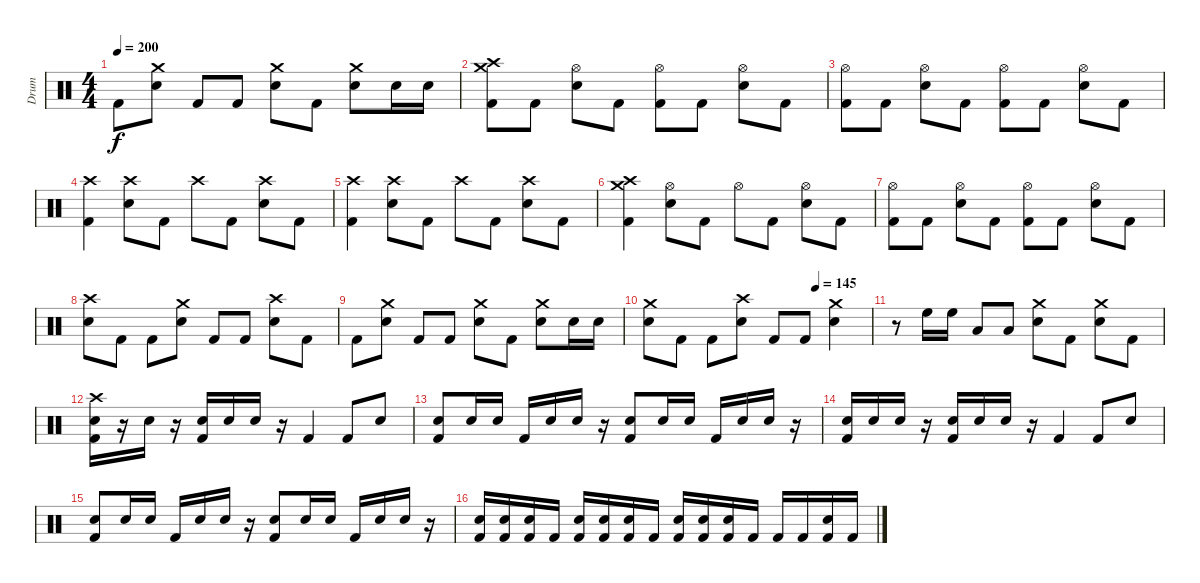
\track ("Drum" "Drum") {instrument percussion}
\staff
\articulation defaults
\ts (4 4)
\tempo 200
\clef neutral
\ks c "Kick (hit) 2".8{dy f}
("Crash medium (hit)" "Electric Snare (hit)").8 "Kick (hit) 2".8 "Kick (hit) 2".8 ("Crash medium (hit)" "Electric Snare (hit)").8 "Kick (hit) 2".8 ("Crash medium (hit)" "Electric Snare (hit)").8 "Electric Snare (hit)".16 "Electric Snare (hit)".16 |
("Crash high (hit)" "Crash medium (hit)" "Kick (hit) 2").8 "Kick (hit) 2".8 ("Hi-Hat (open)" "Electric Snare (hit)").8 "Kick (hit) 2".8 ("Hi-Hat (open)" "Kick (hit) 2").8 "Kick (hit) 2".8 ("Hi-Hat (open)" "Electric Snare (hit)").8 "Kick (hit) 2".8 |
("Hi-Hat (open)" "Kick (hit) 2").8 "Kick (hit) 2".8 ("Hi-Hat (open)" "Electric Snare (hit)").8 "Kick (hit) 2".8 ("Hi-Hat (open)" "Kick (hit) 2").8 "Kick (hit) 2".8 ("Hi-Hat (open)" "Electric Snare (hit)").8 "Kick (hit) 2".8 |
("Crash high (hit)" "Kick (hit) 2").4 ("Crash high (hit)" "Electric Snare (hit)").8 "Kick (hit) 2".8 "Crash high (hit)".8 "Kick (hit) 2".8 ("Crash high (hit)" "Electric Snare (hit)").8 "Kick (hit) 2".8 |
("Crash high (hit)" "Kick (hit) 2").4 ("Crash high (hit)" "Electric Snare (hit)").8 "Kick (hit) 2".8 "Crash high (hit)".8 "Kick (hit) 2".8 ("Crash high (hit)" "Electric Snare (hit)").8 "Kick (hit) 2".8 |
("Crash high (hit)" "Crash medium (hit)" "Kick (hit) 2").4 ("Hi-Hat (open)" "Electric Snare (hit)").8 "Kick (hit) 2".8 "Hi-Hat (open)".8 "Kick (hit) 2".8 ("Hi-Hat (open)" "Electric Snare (hit)").8 "Kick (hit) 2".8 |
("Hi-Hat (open)" "Kick (hit) 2").8 "Kick (hit) 2".8 ("Hi-Hat (open)" "Electric Snare (hit)").8 "Kick (hit) 2".8 ("Hi-Hat (open)" "Kick (hit) 2").8 "Kick (hit) 2".8 ("Hi-Hat (open)" "Electric Snare (hit)").8 "Kick (hit) 2".8 |
("Crash high (hit)" "Electric Snare (hit)").8 "Kick (hit) 2".8 "Kick (hit) 2".8 ("Crash medium (hit)" "Electric Snare (hit)").8 "Kick (hit) 2".8 "Kick (hit) 2".8 ("Crash high (hit)" "Electric Snare (hit)").8 "Kick (hit) 2".8 |
"Kick (hit) 2".8 ("Crash medium (hit)" "Electric Snare (hit)").8 "Kick (hit) 2".8 "Kick (hit) 2".8 ("Crash medium (hit)" "Electric Snare (hit)").8 "Kick (hit) 2".8 ("Crash medium (hit)" "Electric Snare (hit)").8 "Electric Snare (hit)".16 "Electric Snare (hit)".16 |
\tempo (145 0.75)
("Crash medium (hit)" "Electric Snare (hit)").8 "Kick (hit) 2".8 "Kick (hit) 2".8 ("Crash high (hit)" "Electric Snare (hit)").8 "Kick (hit) 2".8 "Kick (hit) 2".8 ("Crash medium (hit)" "Electric Snare (hit)").4 |
r.8 "High Floor Tom (hit)".16 "High Floor Tom (hit)".16 "Low Tom (hit)".8 "Low Tom (hit)".8 ("Crash medium (hit)" "Electric Snare (hit)").8 "Kick (hit) 2".8 ("Crash medium (hit)" "Electric Snare (hit)").8 "Kick (hit) 2".8 |
("Crash high (hit)" "Electric Snare (hit)" "Kick (hit) 2").16 r.16 "Electric Snare (hit)".16 r.16 ("Electric Snare (hit)" "Kick (hit) 2").16 "Electric Snare (hit)".16 "Electric Snare (hit)".16 r.16 "Kick (hit) 2".4 "Kick (hit) 2".8 "Electric Snare (hit)".8 |
("Electric Snare (hit)" "Kick (hit) 2").8 "Electric Snare (hit)".16 "Electric Snare (hit)".16 "Kick (hit) 2".16 "Electric Snare (hit)".16 "Electric Snare (hit)".16 r.16 ("Electric Snare (hit)" "Kick (hit) 2").8 "Electric Snare (hit)".16 "Electric Snare (hit)".16 "Kick (hit) 2".16 "Electric Snare (hit)".16 "Electric Snare (hit)".16 r.16 |
("Electric Snare (hit)" "Kick (hit) 2").16 "Electric Snare (hit)".16 "Electric Snare (hit)".16 r.16 ("Electric Snare (hit)" "Kick (hit) 2").16 "Electric Snare (hit)".16 "Electric Snare (hit)".16 r.16 "Kick (hit) 2".4 "Kick (hit) 2".8 "Electric Snare (hit)".8 |
("Electric Snare (hit)" "Kick (hit) 2").8 "Electric Snare (hit)".16 "Electric Snare (hit)".16 "Kick (hit) 2".16 "Electric Snare (hit)".16 "Electric Snare (hit)".16 r.16 ("Electric Snare (hit)" "Kick (hit) 2").8 "Electric Snare (hit)".16 "Electric Snare (hit)".16 "Kick (hit) 2".16 "Electric Snare (hit)".16 "Electric Snare (hit)".16 r.16 |
("Electric Snare (hit)" "Kick (hit) 2").16 ("Electric Snare (hit)" "Kick (hit) 2").16 ("Electric Snare (hit)" "Kick (hit) 2").16 "Kick (hit) 2".16 ("Electric Snare (hit)" "Kick (hit) 2").16 ("Electric Snare (hit)" "Kick (hit) 2").16 ("Electric Snare (hit)" "Kick (hit) 2").16 "Kick (hit) 2".16 ("Electric Snare (hit)" "Kick (hit) 2").16 ("Electric Snare (hit)" "Kick (hit) 2").16 ("Electric Snare (hit)" "Kick (hit) 2").16 "Kick (hit) 2".16 "Kick (hit) 2".16 "Kick (hit) 2".16 ("Electric Snare (hit)" "Kick (hit) 2").16 "Kick (hit) 2".16
